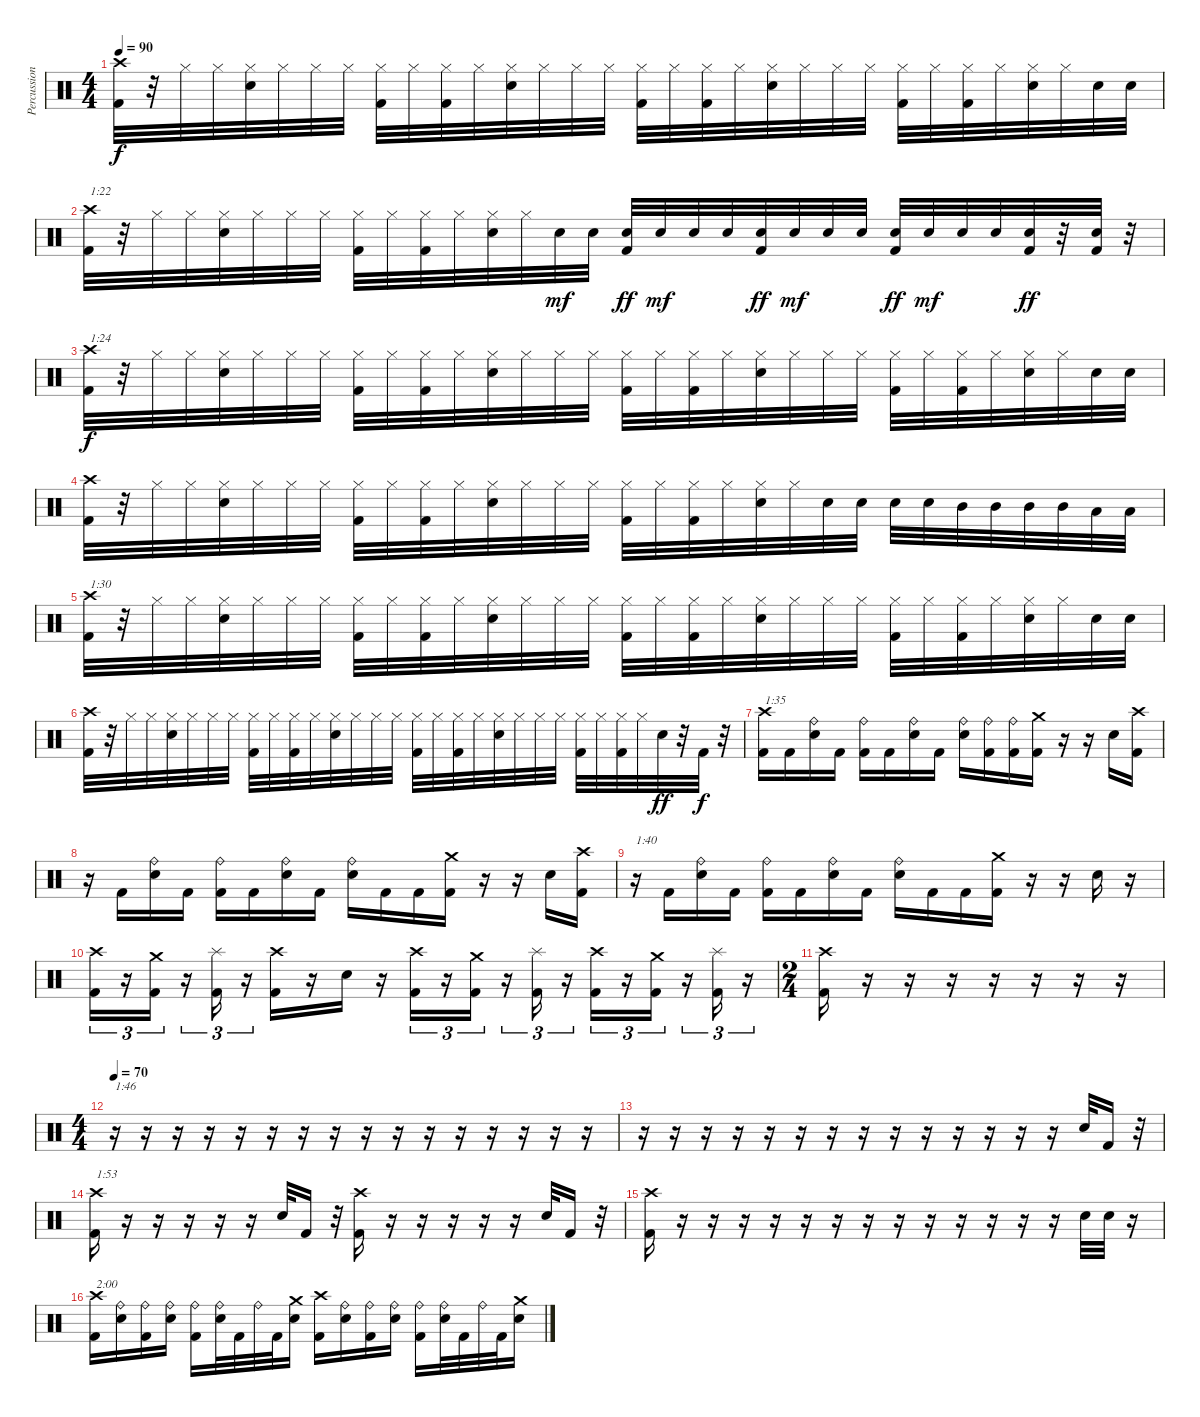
\track ("Percussion" "Percussion") {instrument percussion}
\staff {score}
\articulation defaults
\ts (4 4)
\tempo 90
\clef neutral
\ks c
("Crash high (hit)" "Kick (hit) 2").32{dy f} r.32 "Hi-Hat (closed)".32 "Hi-Hat (closed)".32 ("Hi-Hat (closed)" "Snare (hit) 2").32 "Hi-Hat (closed)".32 "Hi-Hat (closed)".32 "Hi-Hat (closed)".32 ("Hi-Hat (closed)" "Kick (hit) 2").32 "Hi-Hat (closed)".32 ("Hi-Hat (closed)" "Kick (hit) 2").32 "Hi-Hat (closed)".32 ("Hi-Hat (closed)" "Snare (hit) 2").32 "Hi-Hat (closed)".32 "Hi-Hat (closed)".32 "Hi-Hat (closed)".32 ("Hi-Hat (closed)" "Kick (hit) 2").32 "Hi-Hat (closed)".32 ("Hi-Hat (closed)" "Kick (hit) 2").32 "Hi-Hat (closed)".32 ("Hi-Hat (closed)" "Snare (hit) 2").32 "Hi-Hat (closed)".32 "Hi-Hat (closed)".32 "Hi-Hat (closed)".32 ("Hi-Hat (closed)" "Kick (hit) 2").32 "Hi-Hat (closed)".32 ("Hi-Hat (closed)" "Kick (hit) 2").32 "Hi-Hat (closed)".32 ("Hi-Hat (closed)" "Snare (hit) 2").32 "Hi-Hat (closed)".32 "Snare (hit) 2".32 "Snare (hit) 2".32 |
("Crash high (hit)" "Kick (hit) 2").32{txt "1:22"} r.32 "Hi-Hat (closed)".32 "Hi-Hat (closed)".32 ("Hi-Hat (closed)" "Snare (hit) 2").32 "Hi-Hat (closed)".32 "Hi-Hat (closed)".32 "Hi-Hat (closed)".32 ("Hi-Hat (closed)" "Kick (hit) 2").32 "Hi-Hat (closed)".32 ("Hi-Hat (closed)" "Kick (hit) 2").32 "Hi-Hat (closed)".32 ("Hi-Hat (closed)" "Snare (hit) 2").32 "Hi-Hat (closed)".32 "Snare (hit) 2".32{dy mf} "Snare (hit) 2".32 ("Snare (hit) 2" "Kick (hit) 2").32{dy ff} "Snare (hit) 2".32{dy mf} "Snare (hit) 2".32 "Snare (hit) 2".32 ("Snare (hit) 2" "Kick (hit) 2").32{dy ff} "Snare (hit) 2".32{dy mf} "Snare (hit) 2".32 "Snare (hit) 2".32 ("Snare (hit) 2" "Kick (hit) 2").32{dy ff} "Snare (hit) 2".32{dy mf} "Snare (hit) 2".32 "Snare (hit) 2".32 ("Snare (hit) 2" "Kick (hit) 2").32{dy ff} r.32 ("Snare (hit) 2" "Kick (hit) 2").32 r.32 |
("Crash high (hit)" "Kick (hit) 2").32{txt "1:24" dy f} r.32 "Hi-Hat (closed)".32 "Hi-Hat (closed)".32 ("Hi-Hat (closed)" "Snare (hit) 2").32 "Hi-Hat (closed)".32 "Hi-Hat (closed)".32 "Hi-Hat (closed)".32 ("Hi-Hat (closed)" "Kick (hit) 2").32 "Hi-Hat (closed)".32 ("Hi-Hat (closed)" "Kick (hit) 2").32 "Hi-Hat (closed)".32 ("Hi-Hat (closed)" "Snare (hit) 2").32 "Hi-Hat (closed)".32 "Hi-Hat (closed)".32 "Hi-Hat (closed)".32 ("Hi-Hat (closed)" "Kick (hit) 2").32 "Hi-Hat (closed)".32 ("Hi-Hat (closed)" "Kick (hit) 2").32 "Hi-Hat (closed)".32 ("Hi-Hat (closed)" "Snare (hit) 2").32 "Hi-Hat (closed)".32 "Hi-Hat (closed)".32 "Hi-Hat (closed)".32 ("Hi-Hat (closed)" "Kick (hit) 2").32 "Hi-Hat (closed)".32 ("Hi-Hat (closed)" "Kick (hit) 2").32 "Hi-Hat (closed)".32 ("Hi-Hat (closed)" "Snare (hit) 2").32 "Hi-Hat (closed)".32 "Snare (hit) 2".32 "Snare (hit) 2".32 |
("Crash high (hit)" "Kick (hit) 2").32 r.32 "Hi-Hat (closed)".32 "Hi-Hat (closed)".32 ("Hi-Hat (closed)" "Snare (hit) 2").32 "Hi-Hat (closed)".32 "Hi-Hat (closed)".32 "Hi-Hat (closed)".32 ("Hi-Hat (closed)" "Kick (hit) 2").32 "Hi-Hat (closed)".32 ("Hi-Hat (closed)" "Kick (hit) 2").32 "Hi-Hat (closed)".32 ("Hi-Hat (closed)" "Snare (hit) 2").32 "Hi-Hat (closed)".32 "Hi-Hat (closed)".32 "Hi-Hat (closed)".32 ("Hi-Hat (closed)" "Kick (hit) 2").32 "Hi-Hat (closed)".32 ("Hi-Hat (closed)" "Kick (hit) 2").32 "Hi-Hat (closed)".32 ("Hi-Hat (closed)" "Snare (hit) 2").32 "Hi-Hat (closed)".32 "Snare (hit) 2".32 "Snare (hit) 2".32 "Snare (hit) 2".32 "Snare (hit) 2".32 "Mid Tom (hit)".32 "Mid Tom (hit)".32 "Mid Tom (hit)".32 "Mid Tom (hit)".32 "Low Tom (hit)".32 "Low Tom (hit)".32 |
("Crash high (hit)" "Kick (hit) 2").32{txt "1:30"} r.32 "Hi-Hat (closed)".32 "Hi-Hat (closed)".32 ("Hi-Hat (closed)" "Snare (hit) 2").32 "Hi-Hat (closed)".32 "Hi-Hat (closed)".32 "Hi-Hat (closed)".32 ("Hi-Hat (closed)" "Kick (hit) 2").32 "Hi-Hat (closed)".32 ("Hi-Hat (closed)" "Kick (hit) 2").32 "Hi-Hat (closed)".32 ("Hi-Hat (closed)" "Snare (hit) 2").32 "Hi-Hat (closed)".32 "Hi-Hat (closed)".32 "Hi-Hat (closed)".32 ("Hi-Hat (closed)" "Kick (hit) 2").32 "Hi-Hat (closed)".32 ("Hi-Hat (closed)" "Kick (hit) 2").32 "Hi-Hat (closed)".32 ("Hi-Hat (closed)" "Snare (hit) 2").32 "Hi-Hat (closed)".32 "Hi-Hat (closed)".32 "Hi-Hat (closed)".32 ("Hi-Hat (closed)" "Kick (hit) 2").32 "Hi-Hat (closed)".32 ("Hi-Hat (closed)" "Kick (hit) 2").32 "Hi-Hat (closed)".32 ("Hi-Hat (closed)" "Snare (hit) 2").32 "Hi-Hat (closed)".32 "Snare (hit) 2".32 "Snare (hit) 2".32 |
("Crash high (hit)" "Kick (hit) 2").32 r.32 "Hi-Hat (closed)".32 "Hi-Hat (closed)".32 ("Hi-Hat (closed)" "Snare (hit) 2").32 "Hi-Hat (closed)".32 "Hi-Hat (closed)".32 "Hi-Hat (closed)".32 ("Hi-Hat (closed)" "Kick (hit) 2").32 "Hi-Hat (closed)".32 ("Hi-Hat (closed)" "Kick (hit) 2").32 "Hi-Hat (closed)".32 ("Hi-Hat (closed)" "Snare (hit) 2").32 "Hi-Hat (closed)".32 "Hi-Hat (closed)".32 "Hi-Hat (closed)".32 ("Hi-Hat (closed)" "Kick (hit) 2").32 "Hi-Hat (closed)".32 ("Hi-Hat (closed)" "Kick (hit) 2").32 "Hi-Hat (closed)".32 ("Hi-Hat (closed)" "Snare (hit) 2").32 "Hi-Hat (closed)".32 "Hi-Hat (closed)".32 "Hi-Hat (closed)".32 ("Hi-Hat (closed)" "Kick (hit) 2").32 "Hi-Hat (closed)".32 ("Hi-Hat (closed)" "Kick (hit) 2").32 "Hi-Hat (closed)".32 "Snare (hit) 2".32{dy ff} r.32 "Kick (hit) 2".32{dy f} r.32 |
("Crash high (hit)" "Kick (hit) 2").16{txt "1:35"} "Kick (hit) 2".16 ("Ride (bell)" "Snare (hit) 2").16 "Kick (hit) 2".16 ("Ride (bell)" "Kick (hit) 2").16 "Kick (hit) 2".16 ("Ride (bell)" "Snare (hit) 2").16 "Kick (hit) 2".16 ("Ride (bell)" "Snare (hit) 2").16 ("Ride (bell)" "Kick (hit) 2").16 ("Ride (bell)" "Kick (hit) 2").16 ("Crash medium (hit)" "Kick (hit) 2").16 r.16 r.16 "Snare (hit) 2".16 ("Crash high (hit)" "Kick (hit) 2").16 |
r.16 "Kick (hit) 2".16 ("Ride (bell)" "Snare (hit) 2").16 "Kick (hit) 2".16 ("Ride (bell)" "Kick (hit) 2").16 "Kick (hit) 2".16 ("Ride (bell)" "Snare (hit) 2").16 "Kick (hit) 2".16 ("Ride (bell)" "Snare (hit) 2").16 "Kick (hit) 2".16 "Kick (hit) 2".16 ("Crash medium (hit)" "Kick (hit) 2").16 r.16 r.16 "Snare (hit) 2".16 ("Crash high (hit)" "Kick (hit) 2").16 |
r.16{txt "1:40"} "Kick (hit) 2".16 ("Ride (bell)" "Snare (hit) 2").16 "Kick (hit) 2".16 ("Ride (bell)" "Kick (hit) 2").16 "Kick (hit) 2".16 ("Ride (bell)" "Snare (hit) 2").16 "Kick (hit) 2".16 ("Ride (bell)" "Snare (hit) 2").16 "Kick (hit) 2".16 "Kick (hit) 2".16 ("Crash medium (hit)" "Kick (hit) 2").16 r.16 r.16 "Snare (hit) 2".16 r.16 |
("Crash high (hit)" "Kick (hit) 2").16{tu (3 2)} r.16{tu (3 2)} ("Crash medium (hit)" "Kick (hit) 2").16{tu (3 2)} r.16{tu (3 2)} ("Splash (hit)" "Kick (hit) 2").16{tu (3 2)} r.16{tu (3 2)} ("Crash high (hit)" "Kick (hit) 2").16 r.16 "Snare (hit) 2".16 r.16 ("Crash high (hit)" "Kick (hit) 2").16{tu (3 2)} r.16{tu (3 2)} ("Crash medium (hit)" "Kick (hit) 2").16{tu (3 2)} r.16{tu (3 2)} ("Splash (hit)" "Kick (hit) 2").16{tu (3 2)} r.16{tu (3 2)} ("Crash high (hit)" "Kick (hit) 2").16{tu (3 2)} r.16{tu (3 2)} ("Crash medium (hit)" "Kick (hit) 2").16{tu (3 2)} r.16{tu (3 2)} ("Splash (hit)" "Kick (hit) 2").16{tu (3 2)} r.16{tu (3 2)} |
\ts (2 4)
("Crash high (hit)" "Kick (hit) 2").16 r.16 r.16 r.16 r.16 r.16 r.16 r.16 |
\ts (4 4)
\tempo 70
r.16{txt "1:46"} r.16 r.16 r.16 r.16 r.16 r.16 r.16 r.16 r.16 r.16 r.16 r.16 r.16 r.16 r.16 |
r.16 r.16 r.16 r.16 r.16 r.16 r.16 r.16 r.16 r.16 r.16 r.16 r.16 r.16 "Snare (hit) 2".32 "Kick (hit) 2".16 r.32 |
("Crash high (hit)" "Kick (hit) 2").16{txt "1:53"} r.16 r.16 r.16 r.16 r.16 "Snare (hit) 2".32 "Kick (hit) 2".16 r.32 ("Crash high (hit)" "Kick (hit) 2").16 r.16 r.16 r.16 r.16 r.16 "Snare (hit) 2".32 "Kick (hit) 2".16 r.32 |
("Crash high (hit)" "Kick (hit) 2").16 r.16 r.16 r.16 r.16 r.16 r.16 r.16 r.16 r.16 r.16 r.16 r.16 r.16 "Snare (hit) 2".32 "Snare (hit) 2".32 r.16 |
("Crash high (hit)" "Kick (hit) 2").16{txt "2:00"} ("Ride (bell)" "Snare (hit) 2").16 ("Ride (bell)" "Kick (hit) 2").16 ("Ride (bell)" "Snare (hit) 2").16 ("Ride (bell)" "Kick (hit) 2").16 ("Ride (bell)" "Snare (hit) 2").32 "Kick (hit) 2".32 "Ride (bell)".32 "Kick (hit) 2".32 ("Crash medium (hit)" "Snare (hit) 2").16 ("Crash high (hit)" "Kick (hit) 2").16 ("Ride (bell)" "Snare (hit) 2").16 ("Ride (bell)" "Kick (hit) 2").16 ("Ride (bell)" "Snare (hit) 2").16 ("Ride (bell)" "Kick (hit) 2").16 ("Ride (bell)" "Snare (hit) 2").32 "Kick (hit) 2".32 "Ride (bell)".32 "Kick (hit) 2".32 ("Crash medium (hit)" "Snare (hit) 2").16
